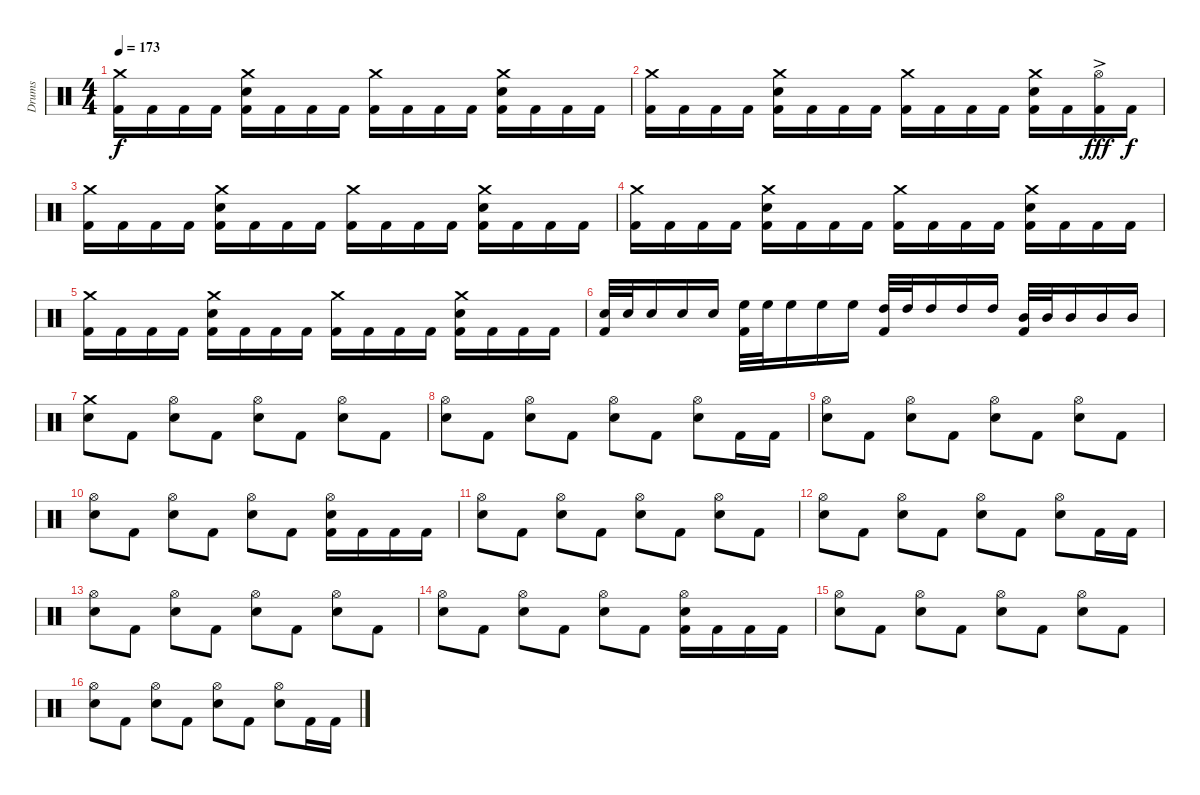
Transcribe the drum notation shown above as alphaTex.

\track ("Drums" "Drums") {instrument percussion}
\staff {score}
\articulation defaults
\ts (4 4)
\tempo 173
\clef neutral
\ks c
("Crash medium (hit)" "Kick (hit) 2").16{dy f} "Kick (hit) 2".16 "Kick (hit) 2".16 "Kick (hit) 2".16 ("Crash medium (hit)" "Snare (hit) 2" "Kick (hit) 2").16 "Kick (hit) 2".16 "Kick (hit) 2".16 "Kick (hit) 2".16 ("Crash medium (hit)" "Kick (hit) 2").16 "Kick (hit) 2".16 "Kick (hit) 2".16 "Kick (hit) 2".16 ("Crash medium (hit)" "Snare (hit) 2" "Kick (hit) 2").16 "Kick (hit) 2".16 "Kick (hit) 2".16 "Kick (hit) 2".16 |
("Crash medium (hit)" "Kick (hit) 2").16 "Kick (hit) 2".16 "Kick (hit) 2".16 "Kick (hit) 2".16 ("Crash medium (hit)" "Snare (hit) 2" "Kick (hit) 2").16 "Kick (hit) 2".16 "Kick (hit) 2".16 "Kick (hit) 2".16 ("Crash medium (hit)" "Kick (hit) 2").16 "Kick (hit) 2".16 "Kick (hit) 2".16 "Kick (hit) 2".16 ("Crash medium (hit)" "Snare (hit) 2" "Kick (hit) 2").16 "Kick (hit) 2".16 ("Hi-Hat (open)"{ac} "Kick (hit) 2").16{dy fff} "Kick (hit) 2".16{dy f} |
("Crash medium (hit)" "Kick (hit) 2").16 "Kick (hit) 2".16 "Kick (hit) 2".16 "Kick (hit) 2".16 ("Crash medium (hit)" "Snare (hit) 2" "Kick (hit) 2").16 "Kick (hit) 2".16 "Kick (hit) 2".16 "Kick (hit) 2".16 ("Crash medium (hit)" "Kick (hit) 2").16 "Kick (hit) 2".16 "Kick (hit) 2".16 "Kick (hit) 2".16 ("Crash medium (hit)" "Snare (hit) 2" "Kick (hit) 2").16 "Kick (hit) 2".16 "Kick (hit) 2".16 "Kick (hit) 2".16 |
("Crash medium (hit)" "Kick (hit) 2").16 "Kick (hit) 2".16 "Kick (hit) 2".16 "Kick (hit) 2".16 ("Crash medium (hit)" "Snare (hit) 2" "Kick (hit) 2").16 "Kick (hit) 2".16 "Kick (hit) 2".16 "Kick (hit) 2".16 ("Crash medium (hit)" "Kick (hit) 2").16 "Kick (hit) 2".16 "Kick (hit) 2".16 "Kick (hit) 2".16 ("Crash medium (hit)" "Snare (hit) 2" "Kick (hit) 2").16 "Kick (hit) 2".16 "Kick (hit) 2".16 "Kick (hit) 2".16 |
("Crash medium (hit)" "Kick (hit) 2").16 "Kick (hit) 2".16 "Kick (hit) 2".16 "Kick (hit) 2".16 ("Crash medium (hit)" "Snare (hit) 2" "Kick (hit) 2").16 "Kick (hit) 2".16 "Kick (hit) 2".16 "Kick (hit) 2".16 ("Crash medium (hit)" "Kick (hit) 2").16 "Kick (hit) 2".16 "Kick (hit) 2".16 "Kick (hit) 2".16 ("Crash medium (hit)" "Snare (hit) 2" "Kick (hit) 2").16 "Kick (hit) 2".16 "Kick (hit) 2".16 "Kick (hit) 2".16 |
("Snare (hit) 2" "Kick (hit) 2").32 "Snare (hit) 2".32 "Snare (hit) 2".16 "Snare (hit) 2".16 "Snare (hit) 2".16 ("High Floor Tom (hit)" "Kick (hit) 2").32 "High Floor Tom (hit)".32 "High Floor Tom (hit)".16 "High Floor Tom (hit)".16 "High Floor Tom (hit)".16 ("High Tom (hit)" "Kick (hit) 2").32 "High Tom (hit)".32 "High Tom (hit)".16 "High Tom (hit)".16 "High Tom (hit)".16 ("Mid Tom (hit)" "Kick (hit) 2").32 "Mid Tom (hit)".32 "Mid Tom (hit)".16 "Mid Tom (hit)".16 "Mid Tom (hit)".16 |
("Crash medium (hit)" "Snare (hit) 2").8 "Kick (hit) 2".8 ("Hi-Hat (open)" "Snare (hit) 2").8 "Kick (hit) 2".8 ("Hi-Hat (open)" "Snare (hit) 2").8 "Kick (hit) 2".8 ("Hi-Hat (open)" "Snare (hit) 2").8 "Kick (hit) 2".8 |
("Hi-Hat (open)" "Snare (hit) 2").8 "Kick (hit) 2".8 ("Hi-Hat (open)" "Snare (hit) 2").8 "Kick (hit) 2".8 ("Hi-Hat (open)" "Snare (hit) 2").8 "Kick (hit) 2".8 ("Hi-Hat (open)" "Snare (hit) 2").8 "Kick (hit) 2".16 "Kick (hit) 2".16 |
("Hi-Hat (open)" "Snare (hit) 2").8 "Kick (hit) 2".8 ("Hi-Hat (open)" "Snare (hit) 2").8 "Kick (hit) 2".8 ("Hi-Hat (open)" "Snare (hit) 2").8 "Kick (hit) 2".8 ("Hi-Hat (open)" "Snare (hit) 2").8 "Kick (hit) 2".8 |
("Hi-Hat (open)" "Snare (hit) 2").8 "Kick (hit) 2".8 ("Hi-Hat (open)" "Snare (hit) 2").8 "Kick (hit) 2".8 ("Hi-Hat (open)" "Snare (hit) 2").8 "Kick (hit) 2".8 ("Hi-Hat (open)" "Snare (hit) 2" "Kick (hit) 2").16 "Kick (hit) 2".16 "Kick (hit) 2".16 "Kick (hit) 2".16 |
("Hi-Hat (open)" "Snare (hit) 2").8 "Kick (hit) 2".8 ("Hi-Hat (open)" "Snare (hit) 2").8 "Kick (hit) 2".8 ("Hi-Hat (open)" "Snare (hit) 2").8 "Kick (hit) 2".8 ("Hi-Hat (open)" "Snare (hit) 2").8 "Kick (hit) 2".8 |
("Hi-Hat (open)" "Snare (hit) 2").8 "Kick (hit) 2".8 ("Hi-Hat (open)" "Snare (hit) 2").8 "Kick (hit) 2".8 ("Hi-Hat (open)" "Snare (hit) 2").8 "Kick (hit) 2".8 ("Hi-Hat (open)" "Snare (hit) 2").8 "Kick (hit) 2".16 "Kick (hit) 2".16 |
("Hi-Hat (open)" "Snare (hit) 2").8 "Kick (hit) 2".8 ("Hi-Hat (open)" "Snare (hit) 2").8 "Kick (hit) 2".8 ("Hi-Hat (open)" "Snare (hit) 2").8 "Kick (hit) 2".8 ("Hi-Hat (open)" "Snare (hit) 2").8 "Kick (hit) 2".8 |
("Hi-Hat (open)" "Snare (hit) 2").8 "Kick (hit) 2".8 ("Hi-Hat (open)" "Snare (hit) 2").8 "Kick (hit) 2".8 ("Hi-Hat (open)" "Snare (hit) 2").8 "Kick (hit) 2".8 ("Hi-Hat (open)" "Snare (hit) 2" "Kick (hit) 2").16 "Kick (hit) 2".16 "Kick (hit) 2".16 "Kick (hit) 2".16 |
("Hi-Hat (open)" "Snare (hit) 2").8 "Kick (hit) 2".8 ("Hi-Hat (open)" "Snare (hit) 2").8 "Kick (hit) 2".8 ("Hi-Hat (open)" "Snare (hit) 2").8 "Kick (hit) 2".8 ("Hi-Hat (open)" "Snare (hit) 2").8 "Kick (hit) 2".8 |
("Hi-Hat (open)" "Snare (hit) 2").8 "Kick (hit) 2".8 ("Hi-Hat (open)" "Snare (hit) 2").8 "Kick (hit) 2".8 ("Hi-Hat (open)" "Snare (hit) 2").8 "Kick (hit) 2".8 ("Hi-Hat (open)" "Snare (hit) 2").8 "Kick (hit) 2".16 "Kick (hit) 2".16
